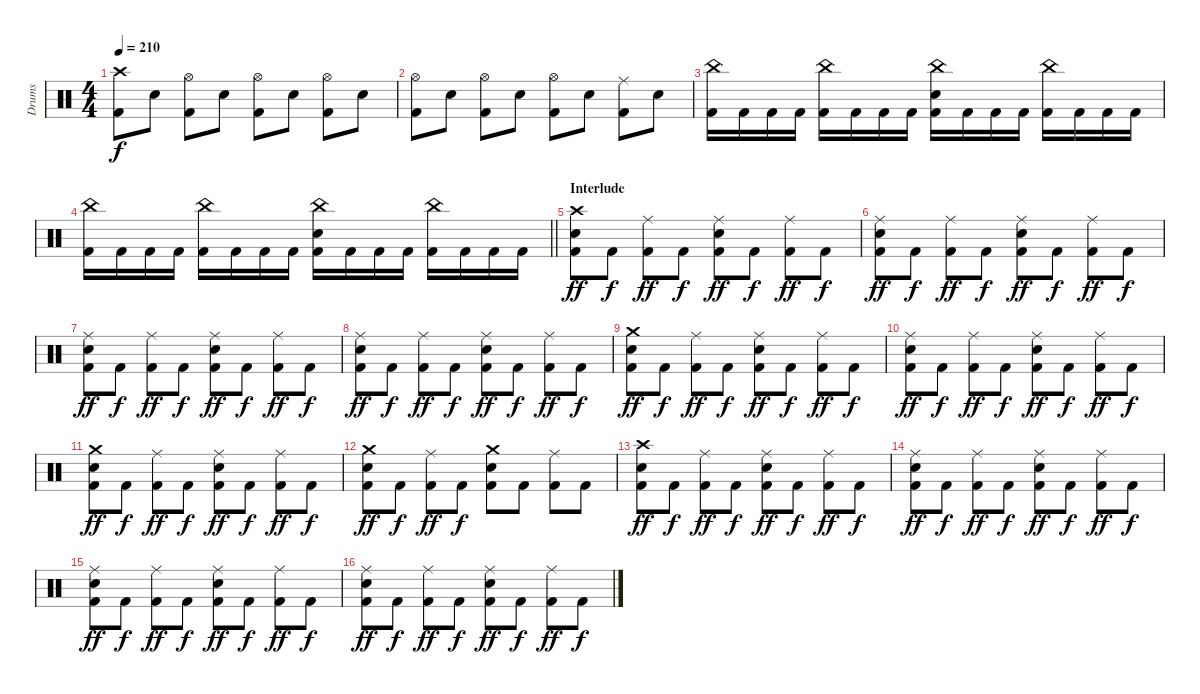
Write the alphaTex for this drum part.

\track ("Drums" "Drums") {instrument percussion}
\staff {score}
\articulation defaults
\ts (4 4)
\tempo 210
\clef neutral
\ks c
("Crash high (hit)" "Kick (hit) 2").8{dy f} "Snare (hit) 2".8 ("Hi-Hat (open)" "Kick (hit) 2").8 "Snare (hit) 2".8 ("Hi-Hat (open)" "Kick (hit) 2").8 "Snare (hit) 2".8 ("Hi-Hat (open)" "Kick (hit) 2").8 "Snare (hit) 2".8 |
("Hi-Hat (open)" "Kick (hit) 2").8 "Snare (hit) 2".8 ("Hi-Hat (open)" "Kick (hit) 2").8 "Snare (hit) 2".8 ("Hi-Hat (open)" "Kick (hit) 2").8 "Snare (hit) 2".8 ("Ride (middle)" "Kick (hit) 2").8 "Snare (hit) 2".8 |
("China (hit)" "Kick (hit) 2").16 "Kick (hit) 2".16 "Kick (hit) 2".16 "Kick (hit) 2".16 ("China (hit)" "Kick (hit) 2").16 "Kick (hit) 2".16 "Kick (hit) 2".16 "Kick (hit) 2".16 ("China (hit)" "Snare (hit) 2" "Kick (hit) 2").16 "Kick (hit) 2".16 "Kick (hit) 2".16 "Kick (hit) 2".16 ("China (hit)" "Kick (hit) 2").16 "Kick (hit) 2".16 "Kick (hit) 2".16 "Kick (hit) 2".16 |
\barLineRight lightlight
("China (hit)" "Kick (hit) 2").16 "Kick (hit) 2".16 "Kick (hit) 2".16 "Kick (hit) 2".16 ("China (hit)" "Kick (hit) 2").16 "Kick (hit) 2".16 "Kick (hit) 2".16 "Kick (hit) 2".16 ("China (hit)" "Snare (hit) 2" "Kick (hit) 2").16 "Kick (hit) 2".16 "Kick (hit) 2".16 "Kick (hit) 2".16 ("China (hit)" "Kick (hit) 2").16 "Kick (hit) 2".16 "Kick (hit) 2".16 "Kick (hit) 2".16 |
\section ("" "Interlude")
("Crash high (hit)" "Snare (hit) 2" "Kick (hit) 2").8{dy ff} "Kick (hit) 2".8{dy f} ("Ride (middle)" "Kick (hit) 2").8{dy ff} "Kick (hit) 2".8{dy f} ("Ride (middle)" "Snare (hit) 2" "Kick (hit) 2").8{dy ff} "Kick (hit) 2".8{dy f} ("Ride (middle)" "Kick (hit) 2").8{dy ff} "Kick (hit) 2".8{dy f} |
("Ride (middle)" "Snare (hit) 2" "Kick (hit) 2").8{dy ff} "Kick (hit) 2".8{dy f} ("Ride (middle)" "Kick (hit) 2").8{dy ff} "Kick (hit) 2".8{dy f} ("Ride (middle)" "Snare (hit) 2" "Kick (hit) 2").8{dy ff} "Kick (hit) 2".8{dy f} ("Ride (middle)" "Kick (hit) 2").8{dy ff} "Kick (hit) 2".8{dy f} |
("Ride (middle)" "Snare (hit) 2" "Kick (hit) 2").8{dy ff} "Kick (hit) 2".8{dy f} ("Ride (middle)" "Kick (hit) 2").8{dy ff} "Kick (hit) 2".8{dy f} ("Ride (middle)" "Snare (hit) 2" "Kick (hit) 2").8{dy ff} "Kick (hit) 2".8{dy f} ("Ride (middle)" "Kick (hit) 2").8{dy ff} "Kick (hit) 2".8{dy f} |
("Ride (middle)" "Snare (hit) 2" "Kick (hit) 2").8{dy ff} "Kick (hit) 2".8{dy f} ("Ride (middle)" "Kick (hit) 2").8{dy ff} "Kick (hit) 2".8{dy f} ("Ride (middle)" "Snare (hit) 2" "Kick (hit) 2").8{dy ff} "Kick (hit) 2".8{dy f} ("Ride (middle)" "Kick (hit) 2").8{dy ff} "Kick (hit) 2".8{dy f} |
("Crash medium (hit)" "Snare (hit) 2" "Kick (hit) 2").8{dy ff} "Kick (hit) 2".8{dy f} ("Ride (middle)" "Kick (hit) 2").8{dy ff} "Kick (hit) 2".8{dy f} ("Ride (middle)" "Snare (hit) 2" "Kick (hit) 2").8{dy ff} "Kick (hit) 2".8{dy f} ("Ride (middle)" "Kick (hit) 2").8{dy ff} "Kick (hit) 2".8{dy f} |
("Ride (middle)" "Snare (hit) 2" "Kick (hit) 2").8{dy ff} "Kick (hit) 2".8{dy f} ("Ride (middle)" "Kick (hit) 2").8{dy ff} "Kick (hit) 2".8{dy f} ("Ride (middle)" "Snare (hit) 2" "Kick (hit) 2").8{dy ff} "Kick (hit) 2".8{dy f} ("Ride (middle)" "Kick (hit) 2").8{dy ff} "Kick (hit) 2".8{dy f} |
("Crash medium (hit)" "Snare (hit) 2" "Kick (hit) 2").8{dy ff} "Kick (hit) 2".8{dy f} ("Ride (middle)" "Kick (hit) 2").8{dy ff} "Kick (hit) 2".8{dy f} ("Ride (middle)" "Snare (hit) 2" "Kick (hit) 2").8{dy ff} "Kick (hit) 2".8{dy f} ("Ride (middle)" "Kick (hit) 2").8{dy ff} "Kick (hit) 2".8{dy f} |
("Crash medium (hit)" "Snare (hit) 2" "Kick (hit) 2").8{dy ff} "Kick (hit) 2".8{dy f} ("Ride (middle)" "Kick (hit) 2").8{dy ff} "Kick (hit) 2".8{dy f} ("Crash medium (hit)" "Snare (hit) 2" "Kick (hit) 2").8 "Kick (hit) 2".8 ("Ride (middle)" "Kick (hit) 2").8 "Kick (hit) 2".8 |
("Crash high (hit)" "Snare (hit) 2" "Kick (hit) 2").8{dy ff} "Kick (hit) 2".8{dy f} ("Ride (middle)" "Kick (hit) 2").8{dy ff} "Kick (hit) 2".8{dy f} ("Ride (middle)" "Snare (hit) 2" "Kick (hit) 2").8{dy ff} "Kick (hit) 2".8{dy f} ("Ride (middle)" "Kick (hit) 2").8{dy ff} "Kick (hit) 2".8{dy f} |
("Ride (middle)" "Snare (hit) 2" "Kick (hit) 2").8{dy ff} "Kick (hit) 2".8{dy f} ("Ride (middle)" "Kick (hit) 2").8{dy ff} "Kick (hit) 2".8{dy f} ("Ride (middle)" "Snare (hit) 2" "Kick (hit) 2").8{dy ff} "Kick (hit) 2".8{dy f} ("Ride (middle)" "Kick (hit) 2").8{dy ff} "Kick (hit) 2".8{dy f} |
("Ride (middle)" "Snare (hit) 2" "Kick (hit) 2").8{dy ff} "Kick (hit) 2".8{dy f} ("Ride (middle)" "Kick (hit) 2").8{dy ff} "Kick (hit) 2".8{dy f} ("Ride (middle)" "Snare (hit) 2" "Kick (hit) 2").8{dy ff} "Kick (hit) 2".8{dy f} ("Ride (middle)" "Kick (hit) 2").8{dy ff} "Kick (hit) 2".8{dy f} |
("Ride (middle)" "Snare (hit) 2" "Kick (hit) 2").8{dy ff} "Kick (hit) 2".8{dy f} ("Ride (middle)" "Kick (hit) 2").8{dy ff} "Kick (hit) 2".8{dy f} ("Ride (middle)" "Snare (hit) 2" "Kick (hit) 2").8{dy ff} "Kick (hit) 2".8{dy f} ("Ride (middle)" "Kick (hit) 2").8{dy ff} "Kick (hit) 2".8{dy f}
